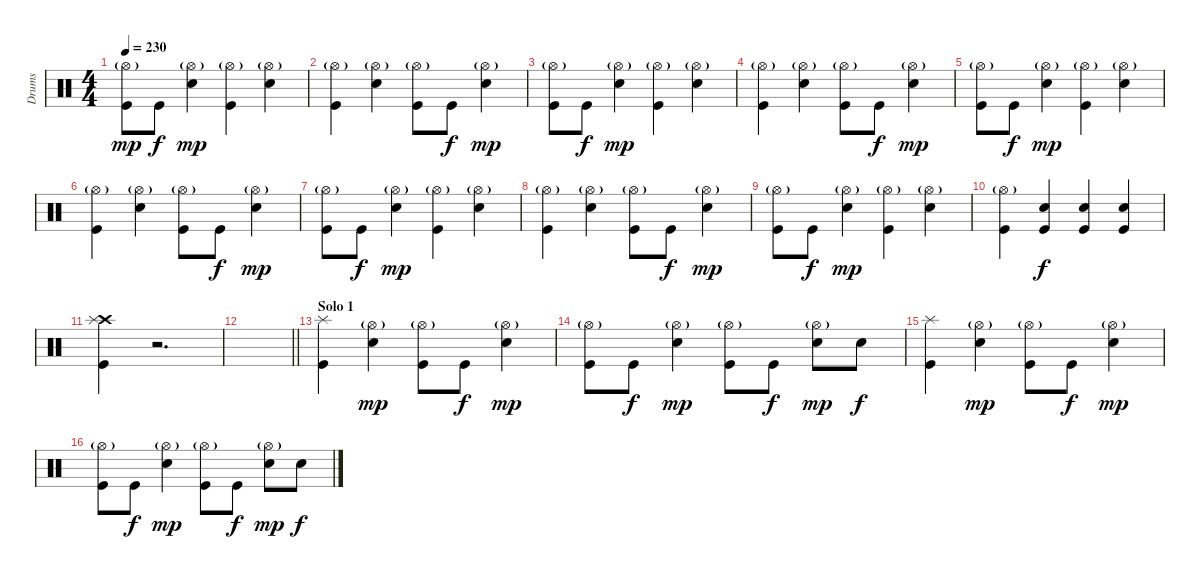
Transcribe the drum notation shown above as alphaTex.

\track ("Drums" "Drums") {instrument percussion}
\staff {score}
\articulation defaults
\ts (4 4)
\tempo 230
\clef neutral
\ks c
("Hi-Hat (open)"{g} "Kick (hit)").8{dy mp} "Kick (hit)".8{dy f} ("Hi-Hat (open)"{g} "Snare (hit) 2").4{dy mp} ("Hi-Hat (open)"{g} "Kick (hit)").4 ("Hi-Hat (open)"{g} "Snare (hit) 2").4 |
("Hi-Hat (open)"{g} "Kick (hit)").4 ("Hi-Hat (open)"{g} "Snare (hit) 2").4 ("Hi-Hat (open)"{g} "Kick (hit)").8 "Kick (hit)".8{dy f} ("Hi-Hat (open)"{g} "Snare (hit) 2").4{dy mp} |
("Hi-Hat (open)"{g} "Kick (hit)").8 "Kick (hit)".8{dy f} ("Hi-Hat (open)"{g} "Snare (hit) 2").4{dy mp} ("Hi-Hat (open)"{g} "Kick (hit)").4 ("Hi-Hat (open)"{g} "Snare (hit) 2").4 |
("Hi-Hat (open)"{g} "Kick (hit)").4 ("Hi-Hat (open)"{g} "Snare (hit) 2").4 ("Hi-Hat (open)"{g} "Kick (hit)").8 "Kick (hit)".8{dy f} ("Hi-Hat (open)"{g} "Snare (hit) 2").4{dy mp} |
("Hi-Hat (open)"{g} "Kick (hit)").8 "Kick (hit)".8{dy f} ("Hi-Hat (open)"{g} "Snare (hit) 2").4{dy mp} ("Hi-Hat (open)"{g} "Kick (hit)").4 ("Hi-Hat (open)"{g} "Snare (hit) 2").4 |
("Hi-Hat (open)"{g} "Kick (hit)").4 ("Hi-Hat (open)"{g} "Snare (hit) 2").4 ("Hi-Hat (open)"{g} "Kick (hit)").8 "Kick (hit)".8{dy f} ("Hi-Hat (open)"{g} "Snare (hit) 2").4{dy mp} |
("Hi-Hat (open)"{g} "Kick (hit)").8 "Kick (hit)".8{dy f} ("Hi-Hat (open)"{g} "Snare (hit) 2").4{dy mp} ("Hi-Hat (open)"{g} "Kick (hit)").4 ("Hi-Hat (open)"{g} "Snare (hit) 2").4 |
("Hi-Hat (open)"{g} "Kick (hit)").4 ("Hi-Hat (open)"{g} "Snare (hit) 2").4 ("Hi-Hat (open)"{g} "Kick (hit)").8 "Kick (hit)".8{dy f} ("Hi-Hat (open)"{g} "Snare (hit) 2").4{dy mp} |
("Hi-Hat (open)"{g} "Kick (hit)").8 "Kick (hit)".8{dy f} ("Hi-Hat (open)"{g} "Snare (hit) 2").4{dy mp} ("Hi-Hat (open)"{g} "Kick (hit)").4 ("Hi-Hat (open)"{g} "Snare (hit) 2").4 |
("Hi-Hat (open)"{g} "Kick (hit)").4 ("Snare (hit) 2" "Kick (hit)").4{dy f} ("Snare (hit) 2" "Kick (hit)").4 ("Snare (hit) 2" "Kick (hit)").4 |
("Crash high (hit)" "Splash (hit)" "Kick (hit)").4 r.2{d} |
\barLineRight lightlight
|
\section ("" "Solo 1")
("Splash (hit)" "Kick (hit)").4 ("Hi-Hat (open)"{g} "Snare (hit) 2").4{dy mp} ("Hi-Hat (open)"{g} "Kick (hit)").8 "Kick (hit)".8{dy f} ("Hi-Hat (open)"{g} "Snare (hit) 2").4{dy mp} |
("Hi-Hat (open)"{g} "Kick (hit)").8 "Kick (hit)".8{dy f} ("Hi-Hat (open)"{g} "Snare (hit) 2").4{dy mp} ("Hi-Hat (open)"{g} "Kick (hit)").8 "Kick (hit)".8{dy f} ("Hi-Hat (open)"{g} "Snare (hit) 2").8{dy mp} "Snare (hit) 2".8{dy f} |
("Splash (hit)" "Kick (hit)").4 ("Hi-Hat (open)"{g} "Snare (hit) 2").4{dy mp} ("Hi-Hat (open)"{g} "Kick (hit)").8 "Kick (hit)".8{dy f} ("Hi-Hat (open)"{g} "Snare (hit) 2").4{dy mp} |
("Hi-Hat (open)"{g} "Kick (hit)").8 "Kick (hit)".8{dy f} ("Hi-Hat (open)"{g} "Snare (hit) 2").4{dy mp} ("Hi-Hat (open)"{g} "Kick (hit)").8 "Kick (hit)".8{dy f} ("Hi-Hat (open)"{g} "Snare (hit) 2").8{dy mp} "Snare (hit) 2".8{dy f}
